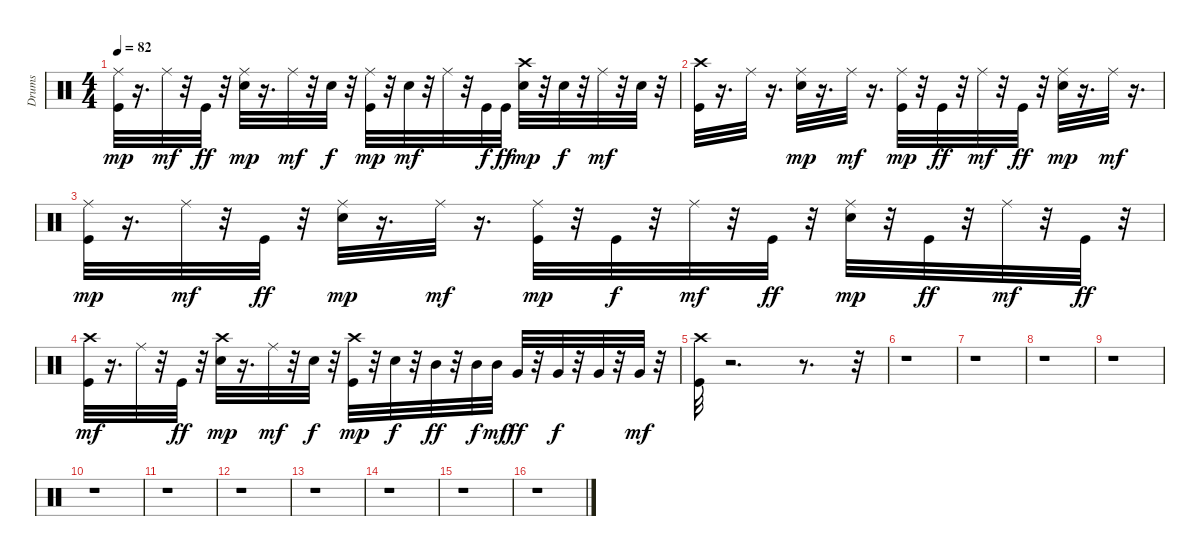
\track ("Drums" "Drums") {instrument percussion}
\staff {score}
\articulation defaults
\ts (4 4)
\tempo 82
\clef neutral
\ks c
("Kick (hit)" "Ride (middle)").32{dy mp} r.16{d} "Ride (middle)".32{dy mf} r.32 "Kick (hit)".32{dy ff} r.32 ("Snare (hit) 2" "Ride (middle)").32{dy mp} r.16{d} "Ride (middle)".32{dy mf} r.32 "Snare (hit) 2".32{dy f} r.32 ("Kick (hit)" "Ride (middle)").32{dy mp} r.32 "Snare (hit) 2".32{dy mf} r.32 "Ride (middle)".32 r.32 "Kick (hit)".32{dy f} "Kick (hit)".32{dy ff} ("Snare (hit) 2" "Crash high (hit)").32{dy mp} r.32 "Snare (hit) 2".32{dy f} r.32 "Ride (middle)".32{dy mf} r.32 "Snare (hit) 2".32 r.32 |
("Kick (hit)" "Crash high (hit)").32 r.16{d} "Ride (middle)".32 r.16{d} ("Snare (hit) 2" "Ride (middle)").32{dy mp} r.16{d} "Ride (middle)".32{dy mf} r.16{d} ("Kick (hit)" "Ride (middle)").32{dy mp} r.32 "Kick (hit)".32{dy ff} r.32 "Ride (middle)".32{dy mf} r.32 "Kick (hit)".32{dy ff} r.32 ("Snare (hit) 2" "Ride (middle)").32{dy mp} r.16{d} "Ride (middle)".32{dy mf} r.16{d} |
("Kick (hit)" "Ride (middle)").32{dy mp} r.16{d} "Ride (middle)".32{dy mf} r.32 "Kick (hit)".32{dy ff} r.32 ("Snare (hit) 2" "Ride (middle)").32{dy mp} r.16{d} "Ride (middle)".32{dy mf} r.16{d} ("Kick (hit)" "Ride (middle)").32{dy mp} r.32 "Kick (hit)".32{dy f} r.32 "Ride (middle)".32{dy mf} r.32 "Kick (hit)".32{dy ff} r.32 ("Snare (hit) 2" "Ride (middle)").32{dy mp} r.32 "Kick (hit)".32{dy ff} r.32 "Ride (middle)".32{dy mf} r.32 "Kick (hit)".32{dy ff} r.32 |
("Kick (hit)" "Crash high (hit)").32{dy mf} r.16{d} "Ride (middle)".32 r.32 "Kick (hit)".32{dy ff} r.32 ("Snare (hit) 2" "Crash high (hit)").32{dy mp} r.16{d} "Ride (middle)".32{dy mf} r.32 "Snare (hit) 2".32{dy f} r.32 ("Kick (hit)" "Crash high (hit)").32{dy mp} r.32 "Snare (hit) 2".32{dy f} r.32 "Mid Tom (hit)".32{dy ff} r.32 "Mid Tom (hit)".32{dy f} "Mid Tom (hit)".32{dy mf} "Very Low Tom (hit)".32{dy ff} r.32 "Very Low Tom (hit)".32{dy f} r.32 "Very Low Tom (hit)".32 r.32 "Very Low Tom (hit)".32{dy mf} r.32 |
("Kick (hit)" "Crash high (hit)").32 r.2{d} r.8{d} r.32 |
r.1 |
r.1 |
r.1 |
r.1 |
r.1 |
r.1 |
r.1 |
r.1 |
r.1 |
r.1 |
r.1
